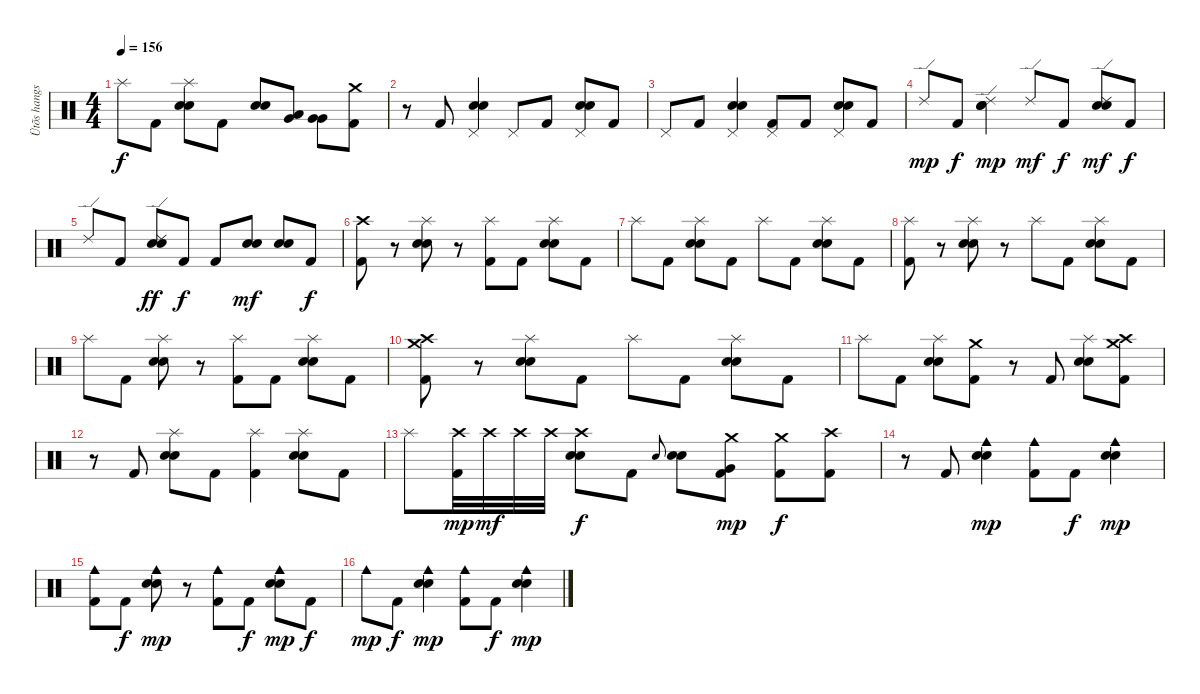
\track ("Ütõs hangszer" "Ütõs hangs") {instrument percussion}
\staff {score}
\articulation defaults
\ts (4 4)
\tempo 156
\clef neutral
\ks c "Splash (hit)".8{dy f} "Kick (hit) 2".8
("Splash (hit)" "Snare (hit) 2" "Electric Snare (hit)").8 "Kick (hit) 2".8 ("Snare (hit) 2" "Electric Snare (hit)").8 ("Low Tom (hit)" "Very Low Tom (hit)").8 ("Very Low Tom (hit)" "Very Low Tom (hit)").8 ("Crash medium (hit)" "Kick (hit) 2").8 |
r.8 "Kick (hit) 2".8 ("Pedal Hi-Hat (hit)" "Snare (hit) 2" "Electric Snare (hit)").4 "Pedal Hi-Hat (hit)".8 "Kick (hit) 2".8 ("Pedal Hi-Hat (hit)" "Snare (hit) 2" "Electric Snare (hit)").8 "Kick (hit) 2".8 |
"Pedal Hi-Hat (hit)".8 "Kick (hit) 2".8 ("Pedal Hi-Hat (hit)" "Snare (hit) 2" "Electric Snare (hit)").4 ("Pedal Hi-Hat (hit)" "Kick (hit) 2").8 "Kick (hit) 2".8 ("Pedal Hi-Hat (hit)" "Snare (hit) 2" "Electric Snare (hit)").8 "Kick (hit) 2".8 |
"Ride (edge) 2".8{dy mp} "Kick (hit) 2".8{dy f} ("Ride (edge) 2" "Snare (hit) 2" "Electric Snare (hit)").4{dy mp} "Ride (edge) 2".8{dy mf} "Kick (hit) 2".8{dy f} ("Ride (edge) 2" "Snare (hit) 2" "Electric Snare (hit)").8{dy mf} "Kick (hit) 2".8{dy f} |
"Ride (edge) 2".8 "Kick (hit) 2".8 ("Ride (edge) 2" "Snare (hit) 2" "Electric Snare (hit)").8{dy ff} "Kick (hit) 2".8{dy f} "Kick (hit) 2".8 ("Snare (hit) 2" "Electric Snare (hit)").8{dy mf} ("Snare (hit) 2" "Electric Snare (hit)").8 "Kick (hit) 2".8{dy f} |
("Crash high (hit)" "Kick (hit) 2").8 r.8 ("Splash (hit)" "Snare (hit) 2" "Electric Snare (hit)").8 r.8 ("Splash (hit)" "Kick (hit) 2").8 "Kick (hit) 2".8 ("Splash (hit)" "Snare (hit) 2" "Electric Snare (hit)").8 "Kick (hit) 2".8 |
"Splash (hit)".8 "Kick (hit) 2".8 ("Splash (hit)" "Snare (hit) 2" "Electric Snare (hit)").8 "Kick (hit) 2".8 "Splash (hit)".8 "Kick (hit) 2".8 ("Splash (hit)" "Snare (hit) 2" "Electric Snare (hit)").8 "Kick (hit) 2".8 |
("Splash (hit)" "Kick (hit) 2").8 r.8 ("Splash (hit)" "Snare (hit) 2" "Electric Snare (hit)").8 r.8 "Splash (hit)".8 "Kick (hit) 2".8 ("Splash (hit)" "Snare (hit) 2" "Electric Snare (hit)").8 "Kick (hit) 2".8 |
"Splash (hit)".8 "Kick (hit) 2".8 ("Splash (hit)" "Snare (hit) 2" "Electric Snare (hit)").8 r.8 ("Splash (hit)" "Kick (hit) 2").8 "Kick (hit) 2".8 ("Splash (hit)" "Snare (hit) 2" "Electric Snare (hit)").8 "Kick (hit) 2".8 |
("Crash high (hit)" "Crash medium (hit)" "Kick (hit) 2").8 r.8 ("Splash (hit)" "Snare (hit) 2" "Electric Snare (hit)").8 "Kick (hit) 2".8 "Splash (hit)".8 "Kick (hit) 2".8 ("Splash (hit)" "Snare (hit) 2" "Electric Snare (hit)").8 "Kick (hit) 2".8 |
"Splash (hit)".8 "Kick (hit) 2".8 ("Splash (hit)" "Snare (hit) 2" "Electric Snare (hit)").8 ("Crash medium (hit)" "Kick (hit) 2").8 r.8 "Kick (hit) 2".8 ("Splash (hit)" "Snare (hit) 2" "Electric Snare (hit)").8 ("Crash high (hit)" "Crash medium (hit)" "Kick (hit) 2").8 |
r.8 "Kick (hit) 2".8 ("Splash (hit)" "Snare (hit) 2" "Electric Snare (hit)").8 "Kick (hit) 2".8 ("Splash (hit)" "Kick (hit) 2").4 ("Splash (hit)" "Snare (hit) 2" "Electric Snare (hit)").8 "Kick (hit) 2".8 |
"Splash (hit)".8 ("Crash high (hit)" "Kick (hit) 2").32{dy mp} "Crash high (hit)".32{dy mf} "Crash high (hit)".32 "Crash high (hit)".32 ("Crash high (hit)" "Snare (hit) 2" "Electric Snare (hit)").8{dy f} "Kick (hit) 2".8 "Electric Snare (hit)".8{gr onbeat} ("Snare (hit) 2" "Electric Snare (hit)").8 ("Crash medium (hit)" "Very Low Tom (hit)" "Kick (hit) 2").8{dy mp} ("Crash medium (hit)" "Kick (hit) 2").8{dy f} ("Crash high (hit)" "Kick (hit) 2").8 |
r.8 "Kick (hit) 2".8 ("Cowbell medium (hit)" "Snare (hit) 2" "Electric Snare (hit)").4{dy mp} ("Cowbell medium (hit)" "Kick (hit) 2").8 "Kick (hit) 2".8{dy f} ("Cowbell medium (hit)" "Snare (hit) 2" "Electric Snare (hit)").4{dy mp} |
("Cowbell medium (hit)" "Kick (hit) 2").8 "Kick (hit) 2".8{dy f} ("Cowbell medium (hit)" "Snare (hit) 2" "Electric Snare (hit)").8{dy mp} r.8 ("Cowbell medium (hit)" "Kick (hit) 2").8 "Kick (hit) 2".8{dy f} ("Cowbell medium (hit)" "Snare (hit) 2" "Electric Snare (hit)").8{dy mp} "Kick (hit) 2".8{dy f} |
"Cowbell medium (hit)".8{dy mp} "Kick (hit) 2".8{dy f} ("Cowbell medium (hit)" "Snare (hit) 2" "Electric Snare (hit)").4{dy mp} ("Cowbell medium (hit)" "Kick (hit) 2").8 "Kick (hit) 2".8{dy f} ("Cowbell medium (hit)" "Snare (hit) 2" "Electric Snare (hit)").4{dy mp}
